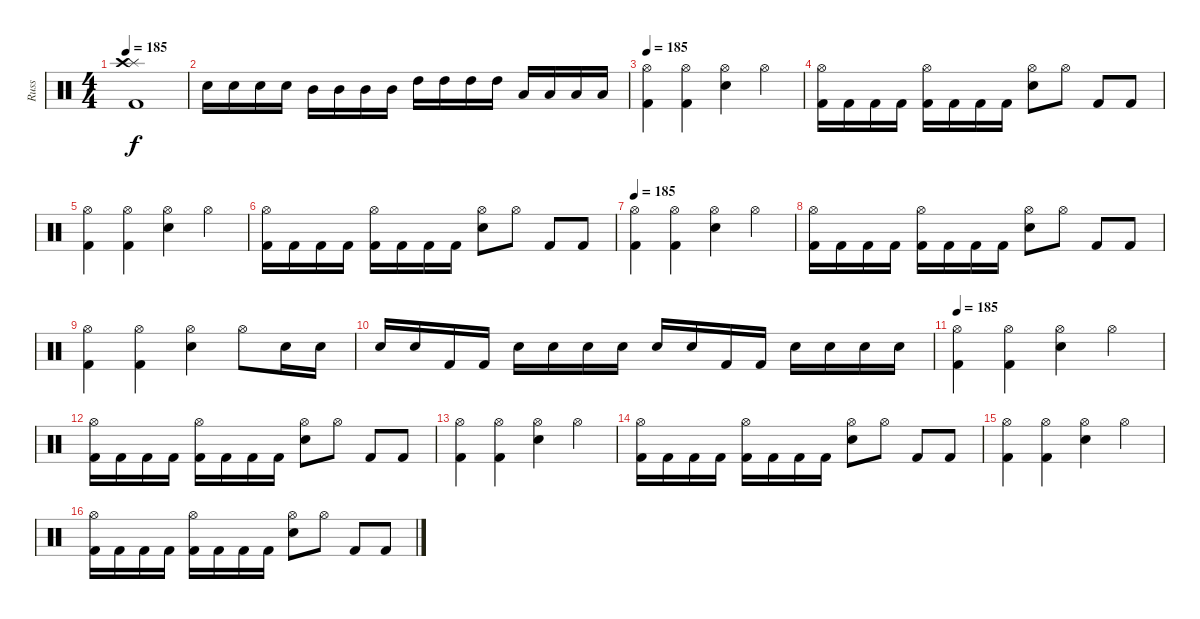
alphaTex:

\track ("Russ" "Russ") {instrument percussion}
\staff {score}
\articulation defaults
\ts (4 4)
\tempo 185
\clef neutral
\ks c
("Kick (hit) 2" "Splash (hit)" "Crash high (hit)").1{dy f} |
"Snare (hit) 2".16 "Snare (hit) 2".16 "Snare (hit) 2".16 "Snare (hit) 2".16 "Mid Tom (hit)".16 "Mid Tom (hit)".16 "Mid Tom (hit)".16 "Mid Tom (hit)".16 "High Tom (hit)".16 "High Tom (hit)".16 "High Tom (hit)".16 "High Tom (hit)".16 "Low Floor Tom (hit)".16 "Low Floor Tom (hit)".16 "Low Floor Tom (hit)".16 "Low Floor Tom (hit)".16 |
\tempo 185
("Hi-Hat (open)" "Kick (hit) 2").4 ("Hi-Hat (open)" "Kick (hit) 2").4 ("Hi-Hat (open)" "Snare (hit) 2").4 "Hi-Hat (open)".4 |
("Hi-Hat (open)" "Kick (hit) 2").16 "Kick (hit) 2".16 "Kick (hit) 2".16 "Kick (hit) 2".16 ("Hi-Hat (open)" "Kick (hit) 2").16 "Kick (hit) 2".16 "Kick (hit) 2".16 "Kick (hit) 2".16 ("Hi-Hat (open)" "Snare (hit) 2").8 "Hi-Hat (open)".8 "Kick (hit) 2".8 "Kick (hit) 2".8 |
("Hi-Hat (open)" "Kick (hit) 2").4 ("Hi-Hat (open)" "Kick (hit) 2").4 ("Hi-Hat (open)" "Snare (hit) 2").4 "Hi-Hat (open)".4 |
("Hi-Hat (open)" "Kick (hit) 2").16 "Kick (hit) 2".16 "Kick (hit) 2".16 "Kick (hit) 2".16 ("Hi-Hat (open)" "Kick (hit) 2").16 "Kick (hit) 2".16 "Kick (hit) 2".16 "Kick (hit) 2".16 ("Hi-Hat (open)" "Snare (hit) 2").8 "Hi-Hat (open)".8 "Kick (hit) 2".8 "Kick (hit) 2".8 |
\tempo 185
("Hi-Hat (open)" "Kick (hit) 2").4 ("Hi-Hat (open)" "Kick (hit) 2").4 ("Hi-Hat (open)" "Snare (hit) 2").4 "Hi-Hat (open)".4 |
("Hi-Hat (open)" "Kick (hit) 2").16 "Kick (hit) 2".16 "Kick (hit) 2".16 "Kick (hit) 2".16 ("Hi-Hat (open)" "Kick (hit) 2").16 "Kick (hit) 2".16 "Kick (hit) 2".16 "Kick (hit) 2".16 ("Hi-Hat (open)" "Snare (hit) 2").8 "Hi-Hat (open)".8 "Kick (hit) 2".8 "Kick (hit) 2".8 |
("Hi-Hat (open)" "Kick (hit) 2").4 ("Hi-Hat (open)" "Kick (hit) 2").4 ("Hi-Hat (open)" "Snare (hit) 2").4 "Hi-Hat (open)".8 "Snare (hit) 2".16 "Snare (hit) 2".16 |
"Snare (hit) 2".16 "Snare (hit) 2".16 "Kick (hit) 2".16 "Kick (hit) 2".16 "Snare (hit) 2".16 "Snare (hit) 2".16 "Snare (hit) 2".16 "Snare (hit) 2".16 "Snare (hit) 2".16 "Snare (hit) 2".16 "Kick (hit) 2".16 "Kick (hit) 2".16 "Snare (hit) 2".16 "Snare (hit) 2".16 "Snare (hit) 2".16 "Snare (hit) 2".16 |
\tempo 185
("Hi-Hat (open)" "Kick (hit) 2").4 ("Hi-Hat (open)" "Kick (hit) 2").4 ("Hi-Hat (open)" "Snare (hit) 2").4 "Hi-Hat (open)".4 |
("Hi-Hat (open)" "Kick (hit) 2").16 "Kick (hit) 2".16 "Kick (hit) 2".16 "Kick (hit) 2".16 ("Hi-Hat (open)" "Kick (hit) 2").16 "Kick (hit) 2".16 "Kick (hit) 2".16 "Kick (hit) 2".16 ("Hi-Hat (open)" "Snare (hit) 2").8 "Hi-Hat (open)".8 "Kick (hit) 2".8 "Kick (hit) 2".8 |
("Hi-Hat (open)" "Kick (hit) 2").4 ("Hi-Hat (open)" "Kick (hit) 2").4 ("Hi-Hat (open)" "Snare (hit) 2").4 "Hi-Hat (open)".4 |
("Hi-Hat (open)" "Kick (hit) 2").16 "Kick (hit) 2".16 "Kick (hit) 2".16 "Kick (hit) 2".16 ("Hi-Hat (open)" "Kick (hit) 2").16 "Kick (hit) 2".16 "Kick (hit) 2".16 "Kick (hit) 2".16 ("Hi-Hat (open)" "Snare (hit) 2").8 "Hi-Hat (open)".8 "Kick (hit) 2".8 "Kick (hit) 2".8 |
("Hi-Hat (open)" "Kick (hit) 2").4 ("Hi-Hat (open)" "Kick (hit) 2").4 ("Hi-Hat (open)" "Snare (hit) 2").4 "Hi-Hat (open)".4 |
("Hi-Hat (open)" "Kick (hit) 2").16 "Kick (hit) 2".16 "Kick (hit) 2".16 "Kick (hit) 2".16 ("Hi-Hat (open)" "Kick (hit) 2").16 "Kick (hit) 2".16 "Kick (hit) 2".16 "Kick (hit) 2".16 ("Hi-Hat (open)" "Snare (hit) 2").8 "Hi-Hat (open)".8 "Kick (hit) 2".8 "Kick (hit) 2".8
